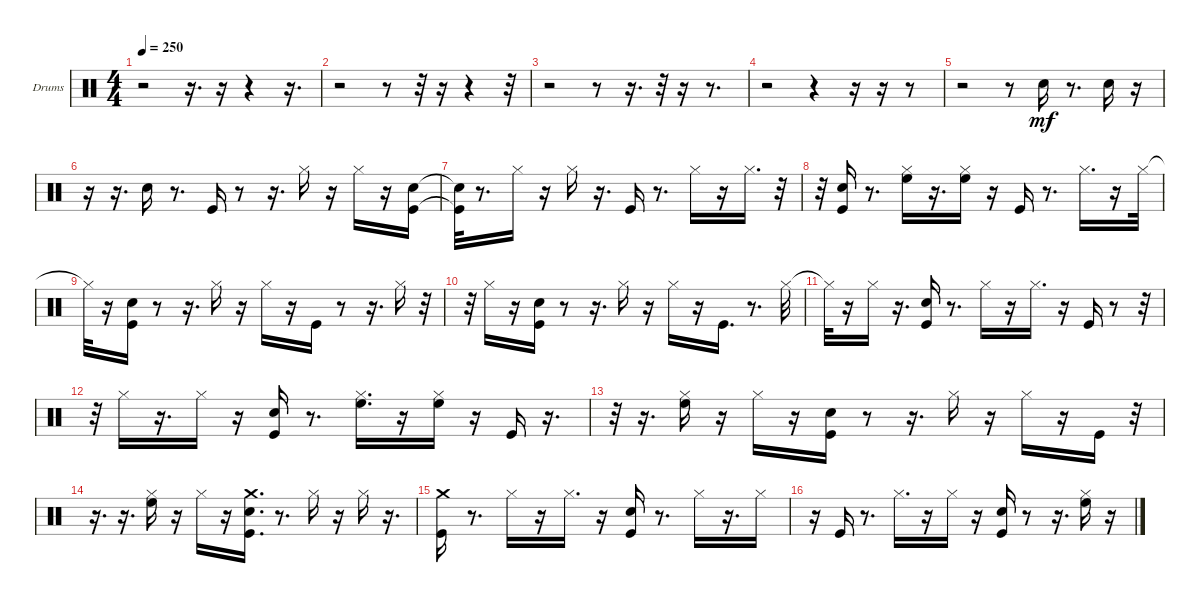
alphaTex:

\bracketExtendMode groupsimilarinstruments
\firstSystemTrackNameOrientation horizontal
\otherSystemsTrackNameOrientation horizontal
\track ("Drums" "Drums") {instrument percussion}
\staff {score}
\articulation defaults
\ts (4 4)
\tempo 250
\clef neutral
\ks c
r.2{dy mf} r.16{d} r.16 r.4 r.16{d} |
r.2 r.8 r.32 r.16 r.4 r.32 |
r.2 r.8 r.16{d} r.32 r.16 r.8{d} |
r.2 r.4 r.16 r.16 r.8 |
r.2 r.8 "Snare (hit) 2".16 r.8{d} "Snare (hit) 2".16 r.16 |
r.16 r.16{d} "Snare (hit) 2".16 r.8{d} "Kick (hit)".16 r.8 r.16{d} "Hi-Hat (closed)".16 r.16 "Hi-Hat (closed)".16 r.16 ("Kick (hit)" "Snare (hit) 2").16 |
("Kick (hit)"{t} "Snare (hit) 2"{t}).32 r.8{d} "Hi-Hat (closed)".16 r.16 "Hi-Hat (closed)".16 r.16{d} "Kick (hit)".16 r.8{d} "Hi-Hat (closed)".16 r.16 "Hi-Hat (closed)".16{d} r.32 |
r.32 ("Kick (hit)" "Snare (hit) 2").16 r.8{d} ("High Floor Tom (hit)" "Hi-Hat (closed)").16 r.16{d} ("High Floor Tom (hit)" "Hi-Hat (closed)").16 r.16 "Kick (hit)".16 r.8{d} "Hi-Hat (closed)".16{d} r.16 "Hi-Hat (closed)".32 |
"Hi-Hat (closed)"{t}.32 r.16 ("Kick (hit)" "Snare (hit) 2").16 r.8 r.16{d} "Hi-Hat (closed)".16 r.16 "Hi-Hat (closed)".16 r.16 "Kick (hit)".16 r.8 r.16{d} "Hi-Hat (closed)".16 r.32 |
r.32 "Hi-Hat (closed)".16 r.16 ("Kick (hit)" "Snare (hit) 2").16 r.8 r.16{d} "Hi-Hat (closed)".16 r.16 "Hi-Hat (closed)".16 r.16 "Kick (hit)".16{d} r.8{d} "Hi-Hat (closed)".32 |
"Hi-Hat (closed)"{t}.32 r.16 "Hi-Hat (closed)".16 r.16{d} ("Kick (hit)" "Snare (hit) 2").16 r.8{d} "Hi-Hat (closed)".16 r.16 "Hi-Hat (closed)".16{d} r.16 "Kick (hit)".16 r.8 r.32 |
r.32 "Hi-Hat (closed)".16 r.16{d} "Hi-Hat (closed)".16 r.16 ("Kick (hit)" "Snare (hit) 2").16 r.8{d} ("High Floor Tom (hit)" "Hi-Hat (closed)").16{d} r.16 ("High Floor Tom (hit)" "Hi-Hat (closed)").16 r.16 "Kick (hit)".16 r.16{d} |
r.32 r.16{d} ("High Floor Tom (hit)" "Hi-Hat (closed)").16 r.16 "Hi-Hat (closed)".16 r.16 ("Kick (hit)" "Snare (hit) 2").16 r.8 r.16{d} "Hi-Hat (closed)".16 r.16 "Hi-Hat (closed)".16 r.16 "Kick (hit)".16 r.32 |
r.16{d} r.16{d} ("High Floor Tom (hit)" "Hi-Hat (closed)").16 r.16 "Hi-Hat (closed)".16 r.16 ("Kick (hit)" "Crash medium (hit)" "Snare (hit) 2").16{d} r.8{d} "Hi-Hat (closed)".16 r.16 "Hi-Hat (closed)".16 r.16{d} |
("Kick (hit)" "Crash medium (hit)").16 r.8{d} "Hi-Hat (closed)".16 r.16 "Hi-Hat (closed)".16{d} r.16 ("Kick (hit)" "Snare (hit) 2").16 r.8{d} "Hi-Hat (closed)".16 r.16{d} "Hi-Hat (closed)".16 |
r.16 "Kick (hit)".16 r.8{d} "Hi-Hat (closed)".16{d} r.16 "Hi-Hat (closed)".16 r.16 ("Kick (hit)" "Snare (hit) 2").16 r.8 r.16{d} ("High Floor Tom (hit)" "Hi-Hat (closed)").16 r.16
